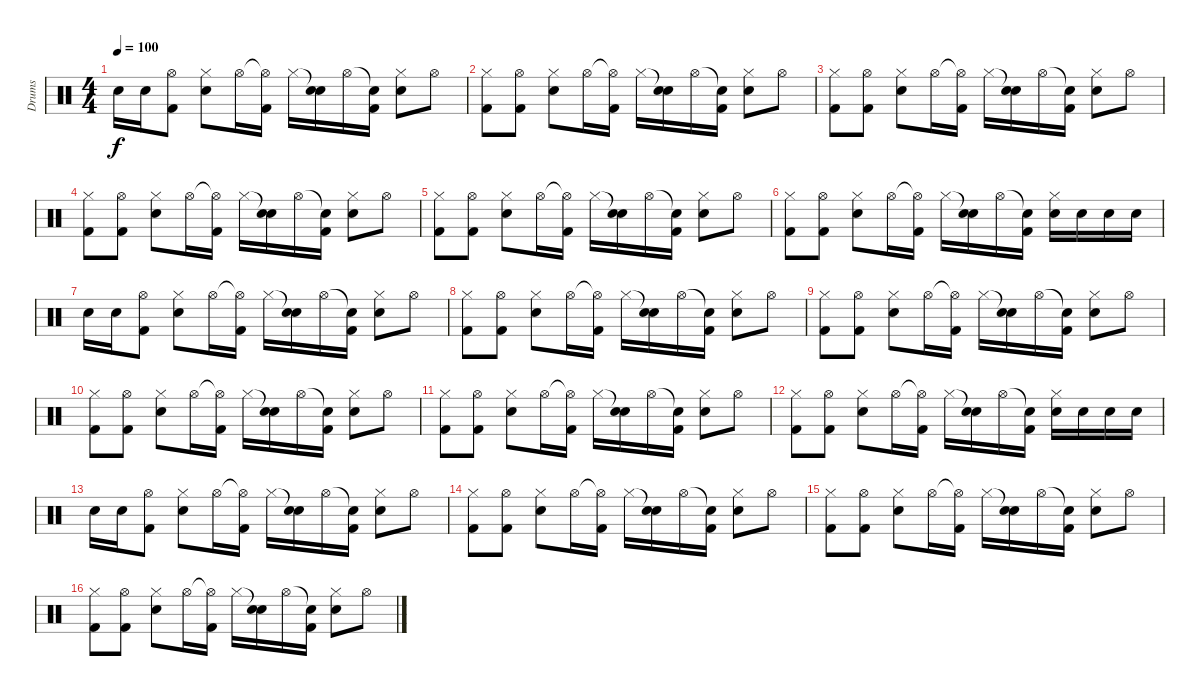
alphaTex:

\track ("Drums" "Drums") {instrument percussion}
\staff {score}
\articulation defaults
\ts (4 4)
\tempo 100
\clef neutral
\ks c "Electric Snare (hit)".16{dy f} "Electric Snare (hit)".16
("Hi-Hat (open)" "Kick (hit) 2").8 ("Hi-Hat (closed)" "Electric Snare (hit)").8 "Hi-Hat (open)".16 ("Hi-Hat (open)"{t} "Kick (hit) 2").16 "Hi-Hat (closed)".16 ("Snare (hit)"{t} "Electric Snare (hit)").16 "Hi-Hat (open)".16 ("Snare (hit)"{t} "Kick (hit) 2").16 ("Hi-Hat (closed)" "Electric Snare (hit)").8 "Hi-Hat (open)".8 |
("Hi-Hat (closed)" "Kick (hit) 2").8 ("Hi-Hat (open)" "Kick (hit) 2").8 ("Hi-Hat (closed)" "Electric Snare (hit)").8 "Hi-Hat (open)".16 ("Hi-Hat (open)"{t} "Kick (hit) 2").16 "Hi-Hat (closed)".16 ("Snare (hit)"{t} "Electric Snare (hit)").16 "Hi-Hat (open)".16 ("Snare (hit)"{t} "Kick (hit) 2").16 ("Hi-Hat (closed)" "Electric Snare (hit)").8 "Hi-Hat (open)".8 |
("Hi-Hat (closed)" "Kick (hit) 2").8 ("Hi-Hat (open)" "Kick (hit) 2").8 ("Hi-Hat (closed)" "Electric Snare (hit)").8 "Hi-Hat (open)".16 ("Hi-Hat (open)"{t} "Kick (hit) 2").16 "Hi-Hat (closed)".16 ("Snare (hit)"{t} "Electric Snare (hit)").16 "Hi-Hat (open)".16 ("Snare (hit)"{t} "Kick (hit) 2").16 ("Hi-Hat (closed)" "Electric Snare (hit)").8 "Hi-Hat (open)".8 |
("Hi-Hat (closed)" "Kick (hit) 2").8 ("Hi-Hat (open)" "Kick (hit) 2").8 ("Hi-Hat (closed)" "Electric Snare (hit)").8 "Hi-Hat (open)".16 ("Hi-Hat (open)"{t} "Kick (hit) 2").16 "Hi-Hat (closed)".16 ("Snare (hit)"{t} "Electric Snare (hit)").16 "Hi-Hat (open)".16 ("Snare (hit)"{t} "Kick (hit) 2").16 ("Hi-Hat (closed)" "Electric Snare (hit)").8 "Hi-Hat (open)".8 |
("Hi-Hat (closed)" "Kick (hit) 2").8 ("Hi-Hat (open)" "Kick (hit) 2").8 ("Hi-Hat (closed)" "Electric Snare (hit)").8 "Hi-Hat (open)".16 ("Hi-Hat (open)"{t} "Kick (hit) 2").16 "Hi-Hat (closed)".16 ("Snare (hit)"{t} "Electric Snare (hit)").16 "Hi-Hat (open)".16 ("Snare (hit)"{t} "Kick (hit) 2").16 ("Hi-Hat (closed)" "Electric Snare (hit)").8 "Hi-Hat (open)".8 |
("Hi-Hat (closed)" "Kick (hit) 2").8 ("Hi-Hat (open)" "Kick (hit) 2").8 ("Hi-Hat (closed)" "Electric Snare (hit)").8 "Hi-Hat (open)".16 ("Hi-Hat (open)"{t} "Kick (hit) 2").16 "Hi-Hat (closed)".16 ("Snare (hit)"{t} "Electric Snare (hit)").16 "Hi-Hat (open)".16 ("Snare (hit)"{t} "Kick (hit) 2").16 ("Hi-Hat (closed)" "Electric Snare (hit)").16 "Electric Snare (hit)".16 "Electric Snare (hit)".16 "Electric Snare (hit)".16 |
"Electric Snare (hit)".16 "Electric Snare (hit)".16 ("Hi-Hat (open)" "Kick (hit) 2").8 ("Hi-Hat (closed)" "Electric Snare (hit)").8 "Hi-Hat (open)".16 ("Hi-Hat (open)"{t} "Kick (hit) 2").16 "Hi-Hat (closed)".16 ("Snare (hit)"{t} "Electric Snare (hit)").16 "Hi-Hat (open)".16 ("Snare (hit)"{t} "Kick (hit) 2").16 ("Hi-Hat (closed)" "Electric Snare (hit)").8 "Hi-Hat (open)".8 |
("Hi-Hat (closed)" "Kick (hit) 2").8 ("Hi-Hat (open)" "Kick (hit) 2").8 ("Hi-Hat (closed)" "Electric Snare (hit)").8 "Hi-Hat (open)".16 ("Hi-Hat (open)"{t} "Kick (hit) 2").16 "Hi-Hat (closed)".16 ("Snare (hit)"{t} "Electric Snare (hit)").16 "Hi-Hat (open)".16 ("Snare (hit)"{t} "Kick (hit) 2").16 ("Hi-Hat (closed)" "Electric Snare (hit)").8 "Hi-Hat (open)".8 |
("Hi-Hat (closed)" "Kick (hit) 2").8 ("Hi-Hat (open)" "Kick (hit) 2").8 ("Hi-Hat (closed)" "Electric Snare (hit)").8 "Hi-Hat (open)".16 ("Hi-Hat (open)"{t} "Kick (hit) 2").16 "Hi-Hat (closed)".16 ("Snare (hit)"{t} "Electric Snare (hit)").16 "Hi-Hat (open)".16 ("Snare (hit)"{t} "Kick (hit) 2").16 ("Hi-Hat (closed)" "Electric Snare (hit)").8 "Hi-Hat (open)".8 |
("Hi-Hat (closed)" "Kick (hit) 2").8 ("Hi-Hat (open)" "Kick (hit) 2").8 ("Hi-Hat (closed)" "Electric Snare (hit)").8 "Hi-Hat (open)".16 ("Hi-Hat (open)"{t} "Kick (hit) 2").16 "Hi-Hat (closed)".16 ("Snare (hit)"{t} "Electric Snare (hit)").16 "Hi-Hat (open)".16 ("Snare (hit)"{t} "Kick (hit) 2").16 ("Hi-Hat (closed)" "Electric Snare (hit)").8 "Hi-Hat (open)".8 |
("Hi-Hat (closed)" "Kick (hit) 2").8 ("Hi-Hat (open)" "Kick (hit) 2").8 ("Hi-Hat (closed)" "Electric Snare (hit)").8 "Hi-Hat (open)".16 ("Hi-Hat (open)"{t} "Kick (hit) 2").16 "Hi-Hat (closed)".16 ("Snare (hit)"{t} "Electric Snare (hit)").16 "Hi-Hat (open)".16 ("Snare (hit)"{t} "Kick (hit) 2").16 ("Hi-Hat (closed)" "Electric Snare (hit)").8 "Hi-Hat (open)".8 |
("Hi-Hat (closed)" "Kick (hit) 2").8 ("Hi-Hat (open)" "Kick (hit) 2").8 ("Hi-Hat (closed)" "Electric Snare (hit)").8 "Hi-Hat (open)".16 ("Hi-Hat (open)"{t} "Kick (hit) 2").16 "Hi-Hat (closed)".16 ("Snare (hit)"{t} "Electric Snare (hit)").16 "Hi-Hat (open)".16 ("Snare (hit)"{t} "Kick (hit) 2").16 ("Hi-Hat (closed)" "Electric Snare (hit)").16 "Electric Snare (hit)".16 "Electric Snare (hit)".16 "Electric Snare (hit)".16 |
"Electric Snare (hit)".16 "Electric Snare (hit)".16 ("Hi-Hat (open)" "Kick (hit) 2").8 ("Hi-Hat (closed)" "Electric Snare (hit)").8 "Hi-Hat (open)".16 ("Hi-Hat (open)"{t} "Kick (hit) 2").16 "Hi-Hat (closed)".16 ("Snare (hit)"{t} "Electric Snare (hit)").16 "Hi-Hat (open)".16 ("Snare (hit)"{t} "Kick (hit) 2").16 ("Hi-Hat (closed)" "Electric Snare (hit)").8 "Hi-Hat (open)".8 |
("Hi-Hat (closed)" "Kick (hit) 2").8 ("Hi-Hat (open)" "Kick (hit) 2").8 ("Hi-Hat (closed)" "Electric Snare (hit)").8 "Hi-Hat (open)".16 ("Hi-Hat (open)"{t} "Kick (hit) 2").16 "Hi-Hat (closed)".16 ("Snare (hit)"{t} "Electric Snare (hit)").16 "Hi-Hat (open)".16 ("Snare (hit)"{t} "Kick (hit) 2").16 ("Hi-Hat (closed)" "Electric Snare (hit)").8 "Hi-Hat (open)".8 |
("Hi-Hat (closed)" "Kick (hit) 2").8 ("Hi-Hat (open)" "Kick (hit) 2").8 ("Hi-Hat (closed)" "Electric Snare (hit)").8 "Hi-Hat (open)".16 ("Hi-Hat (open)"{t} "Kick (hit) 2").16 "Hi-Hat (closed)".16 ("Snare (hit)"{t} "Electric Snare (hit)").16 "Hi-Hat (open)".16 ("Snare (hit)"{t} "Kick (hit) 2").16 ("Hi-Hat (closed)" "Electric Snare (hit)").8 "Hi-Hat (open)".8 |
("Hi-Hat (closed)" "Kick (hit) 2").8 ("Hi-Hat (open)" "Kick (hit) 2").8 ("Hi-Hat (closed)" "Electric Snare (hit)").8 "Hi-Hat (open)".16 ("Hi-Hat (open)"{t} "Kick (hit) 2").16 "Hi-Hat (closed)".16 ("Snare (hit)"{t} "Electric Snare (hit)").16 "Hi-Hat (open)".16 ("Snare (hit)"{t} "Kick (hit) 2").16 ("Hi-Hat (closed)" "Electric Snare (hit)").8 "Hi-Hat (open)".8
